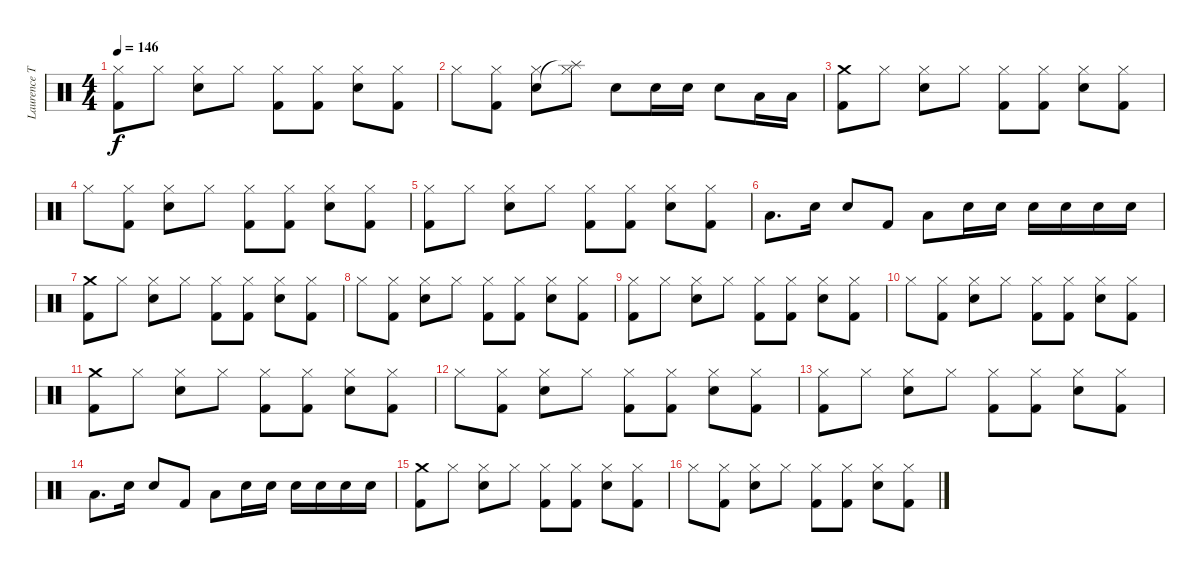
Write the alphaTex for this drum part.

\track ("Laurence Tolhurst drums" "Laurence T") {instrument percussion}
\staff {score}
\articulation defaults
\ts (4 4)
\tempo 146
\clef neutral
\ks c
("Hi-Hat (closed)" "Kick (hit) 2").8{dy f} "Hi-Hat (closed)".8 ("Hi-Hat (closed)" "Snare (hit) 2").8 "Hi-Hat (closed)".8 ("Hi-Hat (closed)" "Kick (hit) 2").8 ("Hi-Hat (closed)" "Kick (hit) 2").8 ("Hi-Hat (closed)" "Snare (hit) 2").8 ("Hi-Hat (closed)" "Kick (hit) 2").8 |
"Hi-Hat (closed)".8 ("Hi-Hat (closed)" "Kick (hit) 2").8 ("Hi-Hat (closed)" "Snare (hit) 2").8 ("Hi-Hat (closed)" "Splash (hit)"{t}).8 "Snare (hit) 2".8 "Snare (hit) 2".16 "Snare (hit) 2".16 "Snare (hit) 2".8 "Low Tom (hit)".16 "Low Floor Tom (hit)".16 |
("Crash medium (hit)" "Kick (hit) 2").8 "Hi-Hat (closed)".8 ("Hi-Hat (closed)" "Snare (hit) 2").8 "Hi-Hat (closed)".8 ("Hi-Hat (closed)" "Kick (hit) 2").8 ("Hi-Hat (closed)" "Kick (hit) 2").8 ("Hi-Hat (closed)" "Snare (hit) 2").8 ("Hi-Hat (closed)" "Kick (hit) 2").8 |
"Hi-Hat (closed)".8 ("Hi-Hat (closed)" "Kick (hit) 2").8 ("Hi-Hat (closed)" "Snare (hit) 2").8 "Hi-Hat (closed)".8 ("Hi-Hat (closed)" "Kick (hit) 2").8 ("Hi-Hat (closed)" "Kick (hit) 2").8 ("Hi-Hat (closed)" "Snare (hit) 2").8 ("Hi-Hat (closed)" "Kick (hit) 2").8 |
("Hi-Hat (closed)" "Kick (hit) 2").8 "Hi-Hat (closed)".8 ("Hi-Hat (closed)" "Snare (hit) 2").8 "Hi-Hat (closed)".8 ("Hi-Hat (closed)" "Kick (hit) 2").8 ("Hi-Hat (closed)" "Kick (hit) 2").8 ("Hi-Hat (closed)" "Snare (hit) 2").8 ("Hi-Hat (closed)" "Kick (hit) 2").8 |
"Low Tom (hit)".8{d} "Snare (hit) 2".16 "Snare (hit) 2".8 "Kick (hit) 2".8 "Low Tom (hit)".8 "Snare (hit) 2".16 "Snare (hit) 2".16 "Snare (hit) 2".16 "Snare (hit) 2".16 "Snare (hit) 2".16 "Snare (hit) 2".16 |
("Crash medium (hit)" "Kick (hit) 2").8 "Hi-Hat (closed)".8 ("Hi-Hat (closed)" "Snare (hit) 2").8 "Hi-Hat (closed)".8 ("Hi-Hat (closed)" "Kick (hit) 2").8 ("Hi-Hat (closed)" "Kick (hit) 2").8 ("Hi-Hat (closed)" "Snare (hit) 2").8 ("Hi-Hat (closed)" "Kick (hit) 2").8 |
"Hi-Hat (closed)".8 ("Hi-Hat (closed)" "Kick (hit) 2").8 ("Hi-Hat (closed)" "Snare (hit) 2").8 "Hi-Hat (closed)".8 ("Hi-Hat (closed)" "Kick (hit) 2").8 ("Hi-Hat (closed)" "Kick (hit) 2").8 ("Hi-Hat (closed)" "Snare (hit) 2").8 ("Hi-Hat (closed)" "Kick (hit) 2").8 |
("Hi-Hat (closed)" "Kick (hit) 2").8 "Hi-Hat (closed)".8 ("Hi-Hat (closed)" "Snare (hit) 2").8 "Hi-Hat (closed)".8 ("Hi-Hat (closed)" "Kick (hit) 2").8 ("Hi-Hat (closed)" "Kick (hit) 2").8 ("Hi-Hat (closed)" "Snare (hit) 2").8 ("Hi-Hat (closed)" "Kick (hit) 2").8 |
"Hi-Hat (closed)".8 ("Hi-Hat (closed)" "Kick (hit) 2").8 ("Hi-Hat (closed)" "Snare (hit) 2").8 "Hi-Hat (closed)".8 ("Hi-Hat (closed)" "Kick (hit) 2").8 ("Hi-Hat (closed)" "Kick (hit) 2").8 ("Hi-Hat (closed)" "Snare (hit) 2").8 ("Hi-Hat (closed)" "Kick (hit) 2").8 |
("Crash medium (hit)" "Kick (hit) 2").8 "Hi-Hat (closed)".8 ("Hi-Hat (closed)" "Snare (hit) 2").8 "Hi-Hat (closed)".8 ("Hi-Hat (closed)" "Kick (hit) 2").8 ("Hi-Hat (closed)" "Kick (hit) 2").8 ("Hi-Hat (closed)" "Snare (hit) 2").8 ("Hi-Hat (closed)" "Kick (hit) 2").8 |
"Hi-Hat (closed)".8 ("Hi-Hat (closed)" "Kick (hit) 2").8 ("Hi-Hat (closed)" "Snare (hit) 2").8 "Hi-Hat (closed)".8 ("Hi-Hat (closed)" "Kick (hit) 2").8 ("Hi-Hat (closed)" "Kick (hit) 2").8 ("Hi-Hat (closed)" "Snare (hit) 2").8 ("Hi-Hat (closed)" "Kick (hit) 2").8 |
("Hi-Hat (closed)" "Kick (hit) 2").8 "Hi-Hat (closed)".8 ("Hi-Hat (closed)" "Snare (hit) 2").8 "Hi-Hat (closed)".8 ("Hi-Hat (closed)" "Kick (hit) 2").8 ("Hi-Hat (closed)" "Kick (hit) 2").8 ("Hi-Hat (closed)" "Snare (hit) 2").8 ("Hi-Hat (closed)" "Kick (hit) 2").8 |
"Low Tom (hit)".8{d} "Snare (hit) 2".16 "Snare (hit) 2".8 "Kick (hit) 2".8 "Low Tom (hit)".8 "Snare (hit) 2".16 "Snare (hit) 2".16 "Snare (hit) 2".16 "Snare (hit) 2".16 "Snare (hit) 2".16 "Snare (hit) 2".16 |
("Crash medium (hit)" "Kick (hit) 2").8 "Hi-Hat (closed)".8 ("Hi-Hat (closed)" "Snare (hit) 2").8 "Hi-Hat (closed)".8 ("Hi-Hat (closed)" "Kick (hit) 2").8 ("Hi-Hat (closed)" "Kick (hit) 2").8 ("Hi-Hat (closed)" "Snare (hit) 2").8 ("Hi-Hat (closed)" "Kick (hit) 2").8 |
"Hi-Hat (closed)".8 ("Hi-Hat (closed)" "Kick (hit) 2").8 ("Hi-Hat (closed)" "Snare (hit) 2").8 "Hi-Hat (closed)".8 ("Hi-Hat (closed)" "Kick (hit) 2").8 ("Hi-Hat (closed)" "Kick (hit) 2").8 ("Hi-Hat (closed)" "Snare (hit) 2").8 ("Hi-Hat (closed)" "Kick (hit) 2").8
